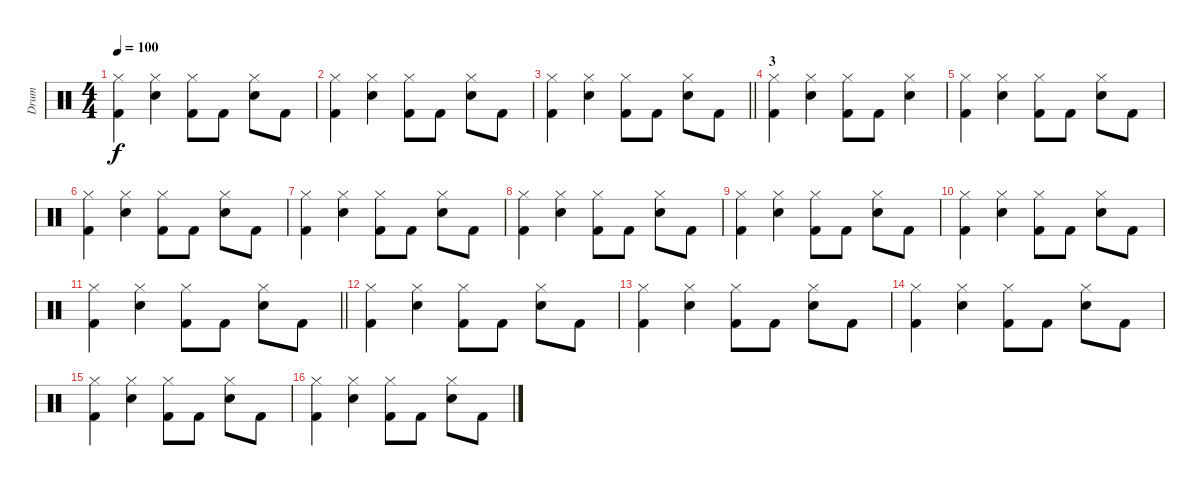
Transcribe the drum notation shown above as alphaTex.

\track ("Drum" "Drum") {instrument percussion}
\staff {score}
\articulation defaults
\ts (4 4)
\tempo 100
\clef neutral
\ks c
("Hi-Hat (closed)" "Kick (hit) 2").4{dy f} ("Hi-Hat (closed)" "Snare (hit) 2").4 ("Hi-Hat (closed)" "Kick (hit) 2").8 "Kick (hit) 2".8 ("Snare (hit) 2" "Hi-Hat (closed)").8 "Kick (hit) 2".8 |
("Hi-Hat (closed)" "Kick (hit) 2").4 ("Hi-Hat (closed)" "Snare (hit) 2").4 ("Hi-Hat (closed)" "Kick (hit) 2").8 "Kick (hit) 2".8 ("Snare (hit) 2" "Hi-Hat (closed)").8 "Kick (hit) 2".8 |
\barLineRight lightlight
("Hi-Hat (closed)" "Kick (hit) 2").4 ("Hi-Hat (closed)" "Snare (hit) 2").4 ("Hi-Hat (closed)" "Kick (hit) 2").8 "Kick (hit) 2".8 ("Snare (hit) 2" "Hi-Hat (closed)").8 "Kick (hit) 2".8 |
\section ("" "3")
("Hi-Hat (closed)" "Kick (hit) 2").4 ("Hi-Hat (closed)" "Snare (hit) 2").4 ("Hi-Hat (closed)" "Kick (hit) 2").8 "Kick (hit) 2".8 ("Snare (hit) 2" "Hi-Hat (closed)").4 |
("Hi-Hat (closed)" "Kick (hit) 2").4 ("Hi-Hat (closed)" "Snare (hit) 2").4 ("Hi-Hat (closed)" "Kick (hit) 2").8 "Kick (hit) 2".8 ("Snare (hit) 2" "Hi-Hat (closed)").8 "Kick (hit) 2".8 |
("Hi-Hat (closed)" "Kick (hit) 2").4 ("Hi-Hat (closed)" "Snare (hit) 2").4 ("Hi-Hat (closed)" "Kick (hit) 2").8 "Kick (hit) 2".8 ("Snare (hit) 2" "Hi-Hat (closed)").8 "Kick (hit) 2".8 |
("Hi-Hat (closed)" "Kick (hit) 2").4 ("Hi-Hat (closed)" "Snare (hit) 2").4 ("Hi-Hat (closed)" "Kick (hit) 2").8 "Kick (hit) 2".8 ("Snare (hit) 2" "Hi-Hat (closed)").8 "Kick (hit) 2".8 |
("Hi-Hat (closed)" "Kick (hit) 2").4 ("Hi-Hat (closed)" "Snare (hit) 2").4 ("Hi-Hat (closed)" "Kick (hit) 2").8 "Kick (hit) 2".8 ("Snare (hit) 2" "Hi-Hat (closed)").8 "Kick (hit) 2".8 |
("Hi-Hat (closed)" "Kick (hit) 2").4 ("Hi-Hat (closed)" "Snare (hit) 2").4 ("Hi-Hat (closed)" "Kick (hit) 2").8 "Kick (hit) 2".8 ("Snare (hit) 2" "Hi-Hat (closed)").8 "Kick (hit) 2".8 |
("Hi-Hat (closed)" "Kick (hit) 2").4 ("Hi-Hat (closed)" "Snare (hit) 2").4 ("Hi-Hat (closed)" "Kick (hit) 2").8 "Kick (hit) 2".8 ("Snare (hit) 2" "Hi-Hat (closed)").8 "Kick (hit) 2".8 |
\barLineRight lightlight
("Hi-Hat (closed)" "Kick (hit) 2").4 ("Hi-Hat (closed)" "Snare (hit) 2").4 ("Hi-Hat (closed)" "Kick (hit) 2").8 "Kick (hit) 2".8 ("Snare (hit) 2" "Hi-Hat (closed)").8 "Kick (hit) 2".8 |
("Hi-Hat (closed)" "Kick (hit) 2").4 ("Hi-Hat (closed)" "Snare (hit) 2").4 ("Hi-Hat (closed)" "Kick (hit) 2").8 "Kick (hit) 2".8 ("Snare (hit) 2" "Hi-Hat (closed)").8 "Kick (hit) 2".8 |
("Hi-Hat (closed)" "Kick (hit) 2").4 ("Hi-Hat (closed)" "Snare (hit) 2").4 ("Hi-Hat (closed)" "Kick (hit) 2").8 "Kick (hit) 2".8 ("Snare (hit) 2" "Hi-Hat (closed)").8 "Kick (hit) 2".8 |
("Hi-Hat (closed)" "Kick (hit) 2").4 ("Hi-Hat (closed)" "Snare (hit) 2").4 ("Hi-Hat (closed)" "Kick (hit) 2").8 "Kick (hit) 2".8 ("Snare (hit) 2" "Hi-Hat (closed)").8 "Kick (hit) 2".8 |
("Hi-Hat (closed)" "Kick (hit) 2").4 ("Hi-Hat (closed)" "Snare (hit) 2").4 ("Hi-Hat (closed)" "Kick (hit) 2").8 "Kick (hit) 2".8 ("Snare (hit) 2" "Hi-Hat (closed)").8 "Kick (hit) 2".8 |
("Hi-Hat (closed)" "Kick (hit) 2").4 ("Hi-Hat (closed)" "Snare (hit) 2").4 ("Hi-Hat (closed)" "Kick (hit) 2").8 "Kick (hit) 2".8 ("Snare (hit) 2" "Hi-Hat (closed)").8 "Kick (hit) 2".8
